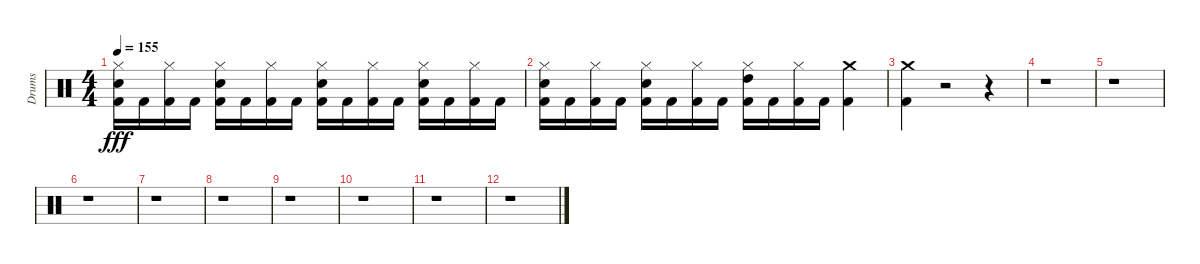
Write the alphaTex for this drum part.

\track ("Drums" "Drums") {instrument percussion}
\staff {score}
\articulation defaults
\ts (4 4)
\tempo 155
\clef neutral
\ks c
("Electric Snare (hit)" "Hi-Hat (closed)" "Kick (hit) 2").16{dy fff} "Kick (hit) 2".16 ("Hi-Hat (closed)" "Kick (hit) 2").16 "Kick (hit) 2".16 ("Electric Snare (hit)" "Hi-Hat (closed)" "Kick (hit) 2").16 "Kick (hit) 2".16 ("Hi-Hat (closed)" "Kick (hit) 2").16 "Kick (hit) 2".16 ("Electric Snare (hit)" "Hi-Hat (closed)" "Kick (hit) 2").16 "Kick (hit) 2".16 ("Hi-Hat (closed)" "Kick (hit) 2").16 "Kick (hit) 2".16 ("Electric Snare (hit)" "Hi-Hat (closed)" "Kick (hit) 2").16 "Kick (hit) 2".16 ("Hi-Hat (closed)" "Kick (hit) 2").16 "Kick (hit) 2".16 |
("Electric Snare (hit)" "Hi-Hat (closed)" "Kick (hit) 2").16 "Kick (hit) 2".16 ("Hi-Hat (closed)" "Kick (hit) 2").16 "Kick (hit) 2".16 ("Electric Snare (hit)" "Hi-Hat (closed)" "Kick (hit) 2").16 "Kick (hit) 2".16 ("Hi-Hat (closed)" "Kick (hit) 2").16 "Kick (hit) 2".16 ("Hi-Hat (closed)" "High Tom (hit)" "Kick (hit) 2").16 "Kick (hit) 2".16 ("Hi-Hat (closed)" "Kick (hit) 2").16 "Kick (hit) 2".16 ("Crash medium (hit)" "Kick (hit) 2").4 |
("Crash medium (hit)" "Kick (hit) 2").4 r.2 r.4 |
r.1 |
r.1 |
r.1 |
r.1 |
r.1 |
r.1 |
r.1 |
r.1 |
r.1
